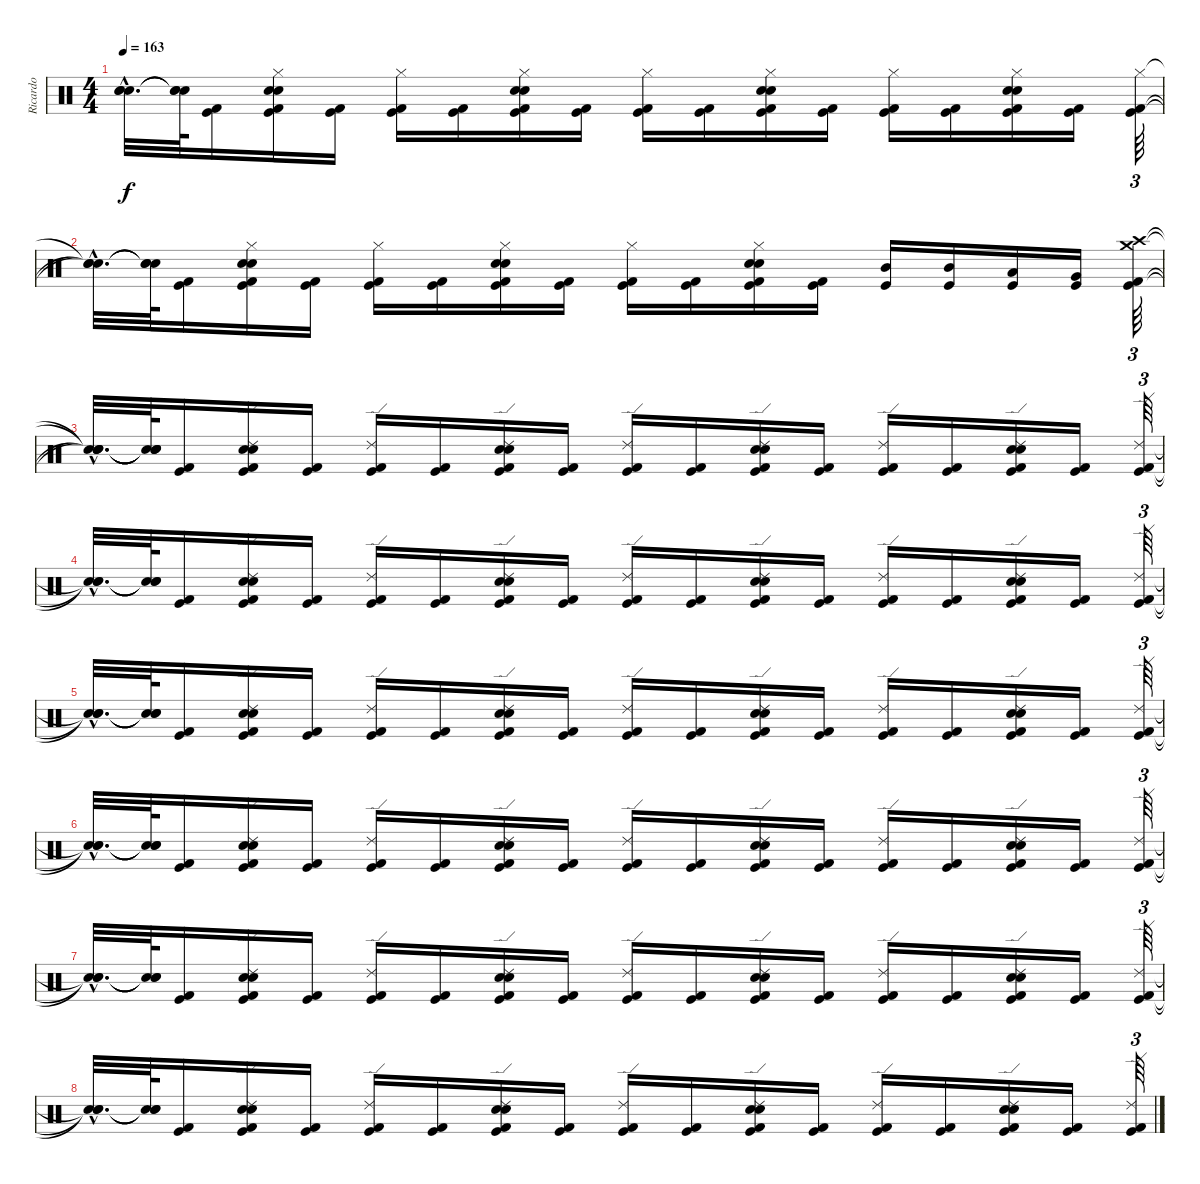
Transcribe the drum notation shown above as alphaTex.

\track ("Ricardo" "Ricardo") {instrument percussion}
\staff {score}
\articulation defaults
\ts (4 4)
\tempo 163
\clef neutral
\ks c
("Snare (hit)"{hac t} "Snare (hit)"{hac t} "Snare (hit)"{hac t}).32{d dy f} ("Snare (hit)"{t} "Snare (hit)"{t} "Snare (hit)"{t}).64 ("Kick (hit) 2" "Kick (hit)").16 ("Electric Snare (hit)" "Snare (hit) 2" "Hi-Hat (closed)" "Kick (hit) 2" "Kick (hit)").16 ("Kick (hit) 2" "Kick (hit)").16 ("Hi-Hat (closed)" "Kick (hit) 2" "Kick (hit)").16 ("Kick (hit) 2" "Kick (hit)").16 ("Electric Snare (hit)" "Snare (hit) 2" "Hi-Hat (closed)" "Kick (hit) 2" "Kick (hit)").16 ("Kick (hit) 2" "Kick (hit)").16 ("Hi-Hat (closed)" "Kick (hit) 2" "Kick (hit)").16 ("Kick (hit) 2" "Kick (hit)").16 ("Electric Snare (hit)" "Snare (hit) 2" "Hi-Hat (closed)" "Kick (hit) 2" "Kick (hit)").16 ("Kick (hit) 2" "Kick (hit)").16 ("Hi-Hat (closed)" "Kick (hit) 2" "Kick (hit)").16 ("Kick (hit) 2" "Kick (hit)").16 ("Electric Snare (hit)" "Snare (hit) 2" "Hi-Hat (closed)" "Kick (hit) 2" "Kick (hit)").16 ("Kick (hit) 2" "Kick (hit)").16 ("Hi-Hat (closed)" "Kick (hit) 2" "Kick (hit)").64{tu (3 2)} |
("Snare (hit)"{hac t} "Snare (hit)"{hac t} "Snare (hit)"{hac t}).32{d} ("Snare (hit)"{t} "Snare (hit)"{t} "Snare (hit)"{t}).64 ("Kick (hit) 2" "Kick (hit)").16 ("Electric Snare (hit)" "Snare (hit) 2" "Hi-Hat (closed)" "Kick (hit) 2" "Kick (hit)").16 ("Kick (hit) 2" "Kick (hit)").16 ("Hi-Hat (closed)" "Kick (hit) 2" "Kick (hit)").16 ("Kick (hit) 2" "Kick (hit)").16 ("Electric Snare (hit)" "Snare (hit) 2" "Hi-Hat (closed)" "Kick (hit) 2" "Kick (hit)").16 ("Kick (hit) 2" "Kick (hit)").16 ("Hi-Hat (closed)" "Kick (hit) 2" "Kick (hit)").16 ("Kick (hit) 2" "Kick (hit)").16 ("Electric Snare (hit)" "Snare (hit) 2" "Hi-Hat (closed)" "Kick (hit) 2" "Kick (hit)").16 ("Kick (hit) 2" "Kick (hit)").16 ("Mid Tom (hit)" "Kick (hit)").16 ("Mid Tom (hit)" "Kick (hit)").16 ("Low Tom (hit)" "Kick (hit)").16 ("Very Low Tom (hit)" "Kick (hit)").16 ("Crash high (hit)" "Crash medium (hit)" "Kick (hit) 2" "Kick (hit)").64{tu (3 2)} |
("Snare (hit)"{hac t} "Snare (hit)"{hac t} "Snare (hit)"{hac t} "Snare (hit)"{hac t}).32{d} ("Snare (hit)"{t} "Snare (hit)"{t} "Snare (hit)"{t} "Snare (hit)"{t}).64 ("Kick (hit) 2" "Kick (hit)").16 ("Ride (edge) 2" "Electric Snare (hit)" "Snare (hit) 2" "Kick (hit) 2" "Kick (hit)").16 ("Kick (hit) 2" "Kick (hit)").16 ("Ride (edge) 2" "Kick (hit) 2" "Kick (hit)").16 ("Kick (hit) 2" "Kick (hit)").16 ("Ride (edge) 2" "Electric Snare (hit)" "Snare (hit) 2" "Kick (hit) 2" "Kick (hit)").16 ("Kick (hit) 2" "Kick (hit)").16 ("Ride (edge) 2" "Kick (hit) 2" "Kick (hit)").16 ("Kick (hit) 2" "Kick (hit)").16 ("Ride (edge) 2" "Electric Snare (hit)" "Snare (hit) 2" "Kick (hit) 2" "Kick (hit)").16 ("Kick (hit) 2" "Kick (hit)").16 ("Ride (edge) 2" "Kick (hit) 2" "Kick (hit)").16 ("Kick (hit) 2" "Kick (hit)").16 ("Ride (edge) 2" "Electric Snare (hit)" "Snare (hit) 2" "Kick (hit) 2" "Kick (hit)").16 ("Kick (hit) 2" "Kick (hit)").16 ("Ride (edge) 2" "Kick (hit) 2" "Kick (hit)").64{tu (3 2)} |
("Snare (hit)"{hac t} "Snare (hit)"{hac t} "Snare (hit)"{hac t}).32{d} ("Snare (hit)"{t} "Snare (hit)"{t} "Snare (hit)"{t}).64 ("Kick (hit) 2" "Kick (hit)").16 ("Ride (edge) 2" "Electric Snare (hit)" "Snare (hit) 2" "Kick (hit) 2" "Kick (hit)").16 ("Kick (hit) 2" "Kick (hit)").16 ("Ride (edge) 2" "Kick (hit) 2" "Kick (hit)").16 ("Kick (hit) 2" "Kick (hit)").16 ("Ride (edge) 2" "Electric Snare (hit)" "Snare (hit) 2" "Kick (hit) 2" "Kick (hit)").16 ("Kick (hit) 2" "Kick (hit)").16 ("Ride (edge) 2" "Kick (hit) 2" "Kick (hit)").16 ("Kick (hit) 2" "Kick (hit)").16 ("Ride (edge) 2" "Electric Snare (hit)" "Snare (hit) 2" "Kick (hit) 2" "Kick (hit)").16 ("Kick (hit) 2" "Kick (hit)").16 ("Ride (edge) 2" "Kick (hit) 2" "Kick (hit)").16 ("Kick (hit) 2" "Kick (hit)").16 ("Ride (edge) 2" "Electric Snare (hit)" "Snare (hit) 2" "Kick (hit) 2" "Kick (hit)").16 ("Kick (hit) 2" "Kick (hit)").16 ("Ride (edge) 2" "Kick (hit) 2" "Kick (hit)").64{tu (3 2)} |
("Snare (hit)"{hac t} "Snare (hit)"{hac t} "Snare (hit)"{hac t}).32{d} ("Snare (hit)"{t} "Snare (hit)"{t} "Snare (hit)"{t}).64 ("Kick (hit) 2" "Kick (hit)").16 ("Ride (edge) 2" "Electric Snare (hit)" "Snare (hit) 2" "Kick (hit) 2" "Kick (hit)").16 ("Kick (hit) 2" "Kick (hit)").16 ("Ride (edge) 2" "Kick (hit) 2" "Kick (hit)").16 ("Kick (hit) 2" "Kick (hit)").16 ("Ride (edge) 2" "Electric Snare (hit)" "Snare (hit) 2" "Kick (hit) 2" "Kick (hit)").16 ("Kick (hit) 2" "Kick (hit)").16 ("Ride (edge) 2" "Kick (hit) 2" "Kick (hit)").16 ("Kick (hit) 2" "Kick (hit)").16 ("Ride (edge) 2" "Electric Snare (hit)" "Snare (hit) 2" "Kick (hit) 2" "Kick (hit)").16 ("Kick (hit) 2" "Kick (hit)").16 ("Ride (edge) 2" "Kick (hit) 2" "Kick (hit)").16 ("Kick (hit) 2" "Kick (hit)").16 ("Ride (edge) 2" "Electric Snare (hit)" "Snare (hit) 2" "Kick (hit) 2" "Kick (hit)").16 ("Kick (hit) 2" "Kick (hit)").16 ("Ride (edge) 2" "Kick (hit) 2" "Kick (hit)").64{tu (3 2)} |
("Snare (hit)"{hac t} "Snare (hit)"{hac t} "Snare (hit)"{hac t}).32{d} ("Snare (hit)"{t} "Snare (hit)"{t} "Snare (hit)"{t}).64 ("Kick (hit) 2" "Kick (hit)").16 ("Ride (edge) 2" "Electric Snare (hit)" "Snare (hit) 2" "Kick (hit) 2" "Kick (hit)").16 ("Kick (hit) 2" "Kick (hit)").16 ("Ride (edge) 2" "Kick (hit) 2" "Kick (hit)").16 ("Kick (hit) 2" "Kick (hit)").16 ("Ride (edge) 2" "Electric Snare (hit)" "Snare (hit) 2" "Kick (hit) 2" "Kick (hit)").16 ("Kick (hit) 2" "Kick (hit)").16 ("Ride (edge) 2" "Kick (hit) 2" "Kick (hit)").16 ("Kick (hit) 2" "Kick (hit)").16 ("Ride (edge) 2" "Electric Snare (hit)" "Snare (hit) 2" "Kick (hit) 2" "Kick (hit)").16 ("Kick (hit) 2" "Kick (hit)").16 ("Ride (edge) 2" "Kick (hit) 2" "Kick (hit)").16 ("Kick (hit) 2" "Kick (hit)").16 ("Ride (edge) 2" "Electric Snare (hit)" "Snare (hit) 2" "Kick (hit) 2" "Kick (hit)").16 ("Kick (hit) 2" "Kick (hit)").16 ("Ride (edge) 2" "Kick (hit) 2" "Kick (hit)").64{tu (3 2)} |
("Snare (hit)"{hac t} "Snare (hit)"{hac t} "Snare (hit)"{hac t}).32{d} ("Snare (hit)"{t} "Snare (hit)"{t} "Snare (hit)"{t}).64 ("Kick (hit) 2" "Kick (hit)").16 ("Ride (edge) 2" "Electric Snare (hit)" "Snare (hit) 2" "Kick (hit) 2" "Kick (hit)").16 ("Kick (hit) 2" "Kick (hit)").16 ("Ride (edge) 2" "Kick (hit) 2" "Kick (hit)").16 ("Kick (hit) 2" "Kick (hit)").16 ("Ride (edge) 2" "Electric Snare (hit)" "Snare (hit) 2" "Kick (hit) 2" "Kick (hit)").16 ("Kick (hit) 2" "Kick (hit)").16 ("Ride (edge) 2" "Kick (hit) 2" "Kick (hit)").16 ("Kick (hit) 2" "Kick (hit)").16 ("Ride (edge) 2" "Electric Snare (hit)" "Snare (hit) 2" "Kick (hit) 2" "Kick (hit)").16 ("Kick (hit) 2" "Kick (hit)").16 ("Ride (edge) 2" "Kick (hit) 2" "Kick (hit)").16 ("Kick (hit) 2" "Kick (hit)").16 ("Ride (edge) 2" "Electric Snare (hit)" "Snare (hit) 2" "Kick (hit) 2" "Kick (hit)").16 ("Kick (hit) 2" "Kick (hit)").16 ("Ride (edge) 2" "Kick (hit) 2" "Kick (hit)").64{tu (3 2)} |
("Snare (hit)"{hac t} "Snare (hit)"{hac t} "Snare (hit)"{hac t}).32{d} ("Snare (hit)"{t} "Snare (hit)"{t} "Snare (hit)"{t}).64 ("Kick (hit) 2" "Kick (hit)").16 ("Ride (edge) 2" "Electric Snare (hit)" "Snare (hit) 2" "Kick (hit) 2" "Kick (hit)").16 ("Kick (hit) 2" "Kick (hit)").16 ("Ride (edge) 2" "Kick (hit) 2" "Kick (hit)").16 ("Kick (hit) 2" "Kick (hit)").16 ("Ride (edge) 2" "Electric Snare (hit)" "Snare (hit) 2" "Kick (hit) 2" "Kick (hit)").16 ("Kick (hit) 2" "Kick (hit)").16 ("Ride (edge) 2" "Kick (hit) 2" "Kick (hit)").16 ("Kick (hit) 2" "Kick (hit)").16 ("Ride (edge) 2" "Electric Snare (hit)" "Snare (hit) 2" "Kick (hit) 2" "Kick (hit)").16 ("Kick (hit) 2" "Kick (hit)").16 ("Ride (edge) 2" "Kick (hit) 2" "Kick (hit)").16 ("Kick (hit) 2" "Kick (hit)").16 ("Ride (edge) 2" "Electric Snare (hit)" "Snare (hit) 2" "Kick (hit) 2" "Kick (hit)").16 ("Kick (hit) 2" "Kick (hit)").16 ("Ride (edge) 2" "Kick (hit) 2" "Kick (hit)").64{tu (3 2)}
